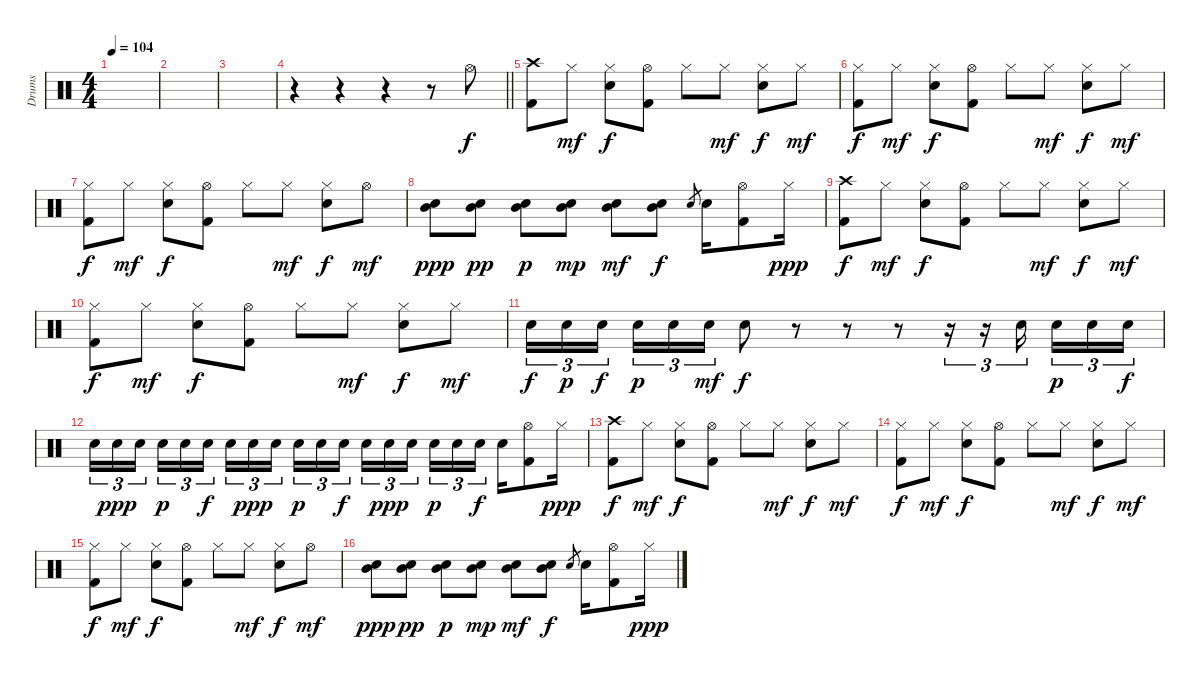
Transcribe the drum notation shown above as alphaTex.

\track ("Drums" "Drums") {instrument percussion}
\staff {score}
\articulation defaults
\ts (4 4)
\tempo 104
\clef neutral
\ks c
|
|
|
\barLineRight lightlight
r.4 r.4 r.4 r.8 "Hi-Hat (open)".8 |
("Crash high (hit)" "Kick (hit) 2").8 "Hi-Hat (closed)".8{dy mf} ("Hi-Hat (closed)" "Electric Snare (hit)").8{dy f} ("Hi-Hat (open)" "Kick (hit) 2").8 "Hi-Hat (closed)".8 "Hi-Hat (closed)".8{dy mf} ("Hi-Hat (closed)" "Electric Snare (hit)").8{dy f} "Hi-Hat (closed)".8{dy mf} |
("Hi-Hat (closed)" "Kick (hit) 2").8{dy f} "Hi-Hat (closed)".8{dy mf} ("Hi-Hat (closed)" "Electric Snare (hit)").8{dy f} ("Hi-Hat (open)" "Kick (hit) 2").8 "Hi-Hat (closed)".8 "Hi-Hat (closed)".8{dy mf} ("Hi-Hat (closed)" "Electric Snare (hit)").8{dy f} "Hi-Hat (closed)".8{dy mf} |
("Hi-Hat (closed)" "Kick (hit) 2").8{dy f} "Hi-Hat (closed)".8{dy mf} ("Hi-Hat (closed)" "Electric Snare (hit)").8{dy f} ("Hi-Hat (open)" "Kick (hit) 2").8 "Hi-Hat (closed)".8 "Hi-Hat (closed)".8{dy mf} ("Hi-Hat (closed)" "Electric Snare (hit)").8{dy f} "Hi-Hat (open)".8{dy mf} |
("Mid Tom (hit)" "Electric Snare (hit)").8{dy ppp} ("Mid Tom (hit)" "Electric Snare (hit)").8{dy pp} ("Mid Tom (hit)" "Electric Snare (hit)").8{dy p} ("Mid Tom (hit)" "Electric Snare (hit)").8{dy mp} ("Mid Tom (hit)" "Electric Snare (hit)").8{dy mf} ("Mid Tom (hit)" "Electric Snare (hit)").8{dy f} "Electric Snare (hit)".8{gr} "Electric Snare (hit)".16 ("Hi-Hat (open)" "Kick (hit) 2").8 "Hi-Hat (closed)".16{dy ppp} |
("Crash high (hit)" "Kick (hit) 2").8{dy f} "Hi-Hat (closed)".8{dy mf} ("Hi-Hat (closed)" "Electric Snare (hit)").8{dy f} ("Hi-Hat (open)" "Kick (hit) 2").8 "Hi-Hat (closed)".8 "Hi-Hat (closed)".8{dy mf} ("Hi-Hat (closed)" "Electric Snare (hit)").8{dy f} "Hi-Hat (closed)".8{dy mf} |
("Hi-Hat (closed)" "Kick (hit) 2").8{dy f} "Hi-Hat (closed)".8{dy mf} ("Hi-Hat (closed)" "Electric Snare (hit)").8{dy f} ("Hi-Hat (open)" "Kick (hit) 2").8 "Hi-Hat (closed)".8 "Hi-Hat (closed)".8{dy mf} ("Hi-Hat (closed)" "Electric Snare (hit)").8{dy f} "Hi-Hat (closed)".8{dy mf} |
"Electric Snare (hit)".16{tu (3 2) dy f} "Electric Snare (hit)".16{tu (3 2) dy p} "Electric Snare (hit)".16{tu (3 2) dy f} "Electric Snare (hit)".16{tu (3 2) dy p} "Electric Snare (hit)".16{tu (3 2)} "Electric Snare (hit)".16{tu (3 2) dy mf} "Electric Snare (hit)".8{dy f} r.8 r.8 r.8 r.16{tu (3 2)} r.16{tu (3 2)} "Electric Snare (hit)".16{tu (3 2)} "Electric Snare (hit)".16{tu (3 2) dy p} "Electric Snare (hit)".16{tu (3 2)} "Electric Snare (hit)".16{tu (3 2) dy f} |
"Electric Snare (hit)".16{tu (3 2)} "Electric Snare (hit)".16{tu (3 2) dy ppp} "Electric Snare (hit)".16{tu (3 2)} "Electric Snare (hit)".16{tu (3 2) dy p} "Electric Snare (hit)".16{tu (3 2)} "Electric Snare (hit)".16{tu (3 2) dy f} "Electric Snare (hit)".16{tu (3 2)} "Electric Snare (hit)".16{tu (3 2) dy ppp} "Electric Snare (hit)".16{tu (3 2)} "Electric Snare (hit)".16{tu (3 2) dy p} "Electric Snare (hit)".16{tu (3 2)} "Electric Snare (hit)".16{tu (3 2) dy f} "Electric Snare (hit)".16{tu (3 2)} "Electric Snare (hit)".16{tu (3 2) dy ppp} "Electric Snare (hit)".16{tu (3 2)} "Electric Snare (hit)".16{tu (3 2) dy p} "Electric Snare (hit)".16{tu (3 2)} "Electric Snare (hit)".16{tu (3 2) dy f} "Electric Snare (hit)".16 ("Hi-Hat (open)" "Kick (hit) 2").8 "Hi-Hat (closed)".16{dy ppp} |
("Crash high (hit)" "Kick (hit) 2").8{dy f} "Hi-Hat (closed)".8{dy mf} ("Hi-Hat (closed)" "Electric Snare (hit)").8{dy f} ("Hi-Hat (open)" "Kick (hit) 2").8 "Hi-Hat (closed)".8 "Hi-Hat (closed)".8{dy mf} ("Hi-Hat (closed)" "Electric Snare (hit)").8{dy f} "Hi-Hat (closed)".8{dy mf} |
("Hi-Hat (closed)" "Kick (hit) 2").8{dy f} "Hi-Hat (closed)".8{dy mf} ("Hi-Hat (closed)" "Electric Snare (hit)").8{dy f} ("Hi-Hat (open)" "Kick (hit) 2").8 "Hi-Hat (closed)".8 "Hi-Hat (closed)".8{dy mf} ("Hi-Hat (closed)" "Electric Snare (hit)").8{dy f} "Hi-Hat (closed)".8{dy mf} |
("Hi-Hat (closed)" "Kick (hit) 2").8{dy f} "Hi-Hat (closed)".8{dy mf} ("Hi-Hat (closed)" "Electric Snare (hit)").8{dy f} ("Hi-Hat (open)" "Kick (hit) 2").8 "Hi-Hat (closed)".8 "Hi-Hat (closed)".8{dy mf} ("Hi-Hat (closed)" "Electric Snare (hit)").8{dy f} "Hi-Hat (open)".8{dy mf} |
("Mid Tom (hit)" "Electric Snare (hit)").8{dy ppp} ("Mid Tom (hit)" "Electric Snare (hit)").8{dy pp} ("Mid Tom (hit)" "Electric Snare (hit)").8{dy p} ("Mid Tom (hit)" "Electric Snare (hit)").8{dy mp} ("Mid Tom (hit)" "Electric Snare (hit)").8{dy mf} ("Mid Tom (hit)" "Electric Snare (hit)").8{dy f} "Electric Snare (hit)".8{gr} "Electric Snare (hit)".16 ("Hi-Hat (open)" "Kick (hit) 2").8 "Hi-Hat (closed)".16{dy ppp}
